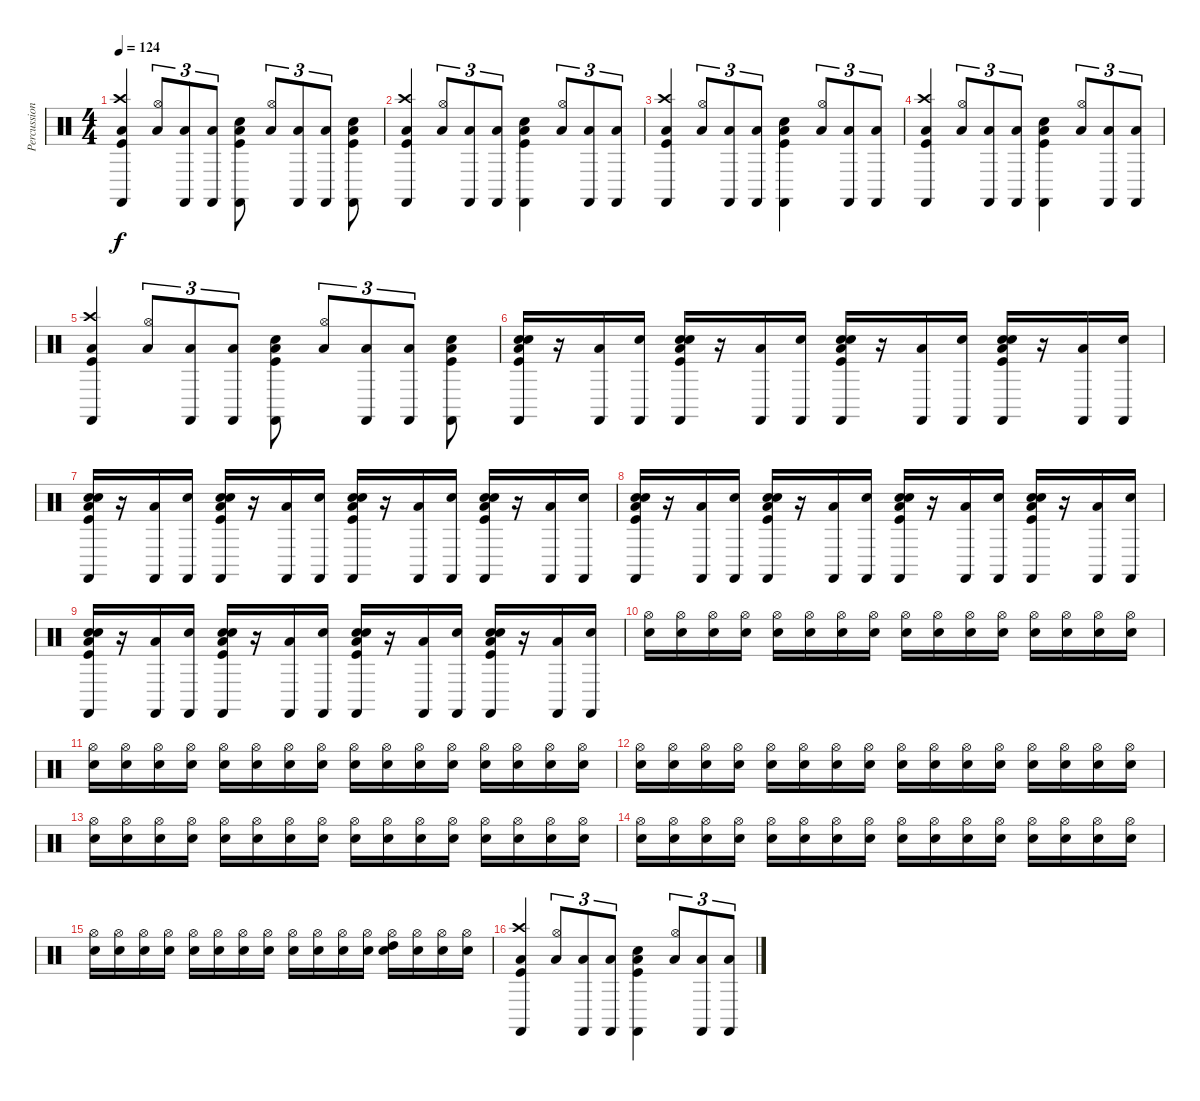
\track ("Percussion" "Percussion") {instrument percussion}
\staff {score}
\articulation defaults
\ts (4 4)
\tempo 124
\clef neutral
\ks c
("Low Floor Tom (hit)" "Kick (hit)" "Crash high (hit)" "Castanets (hit)").4{dy f} ("Low Floor Tom (hit)" "Hi-Hat (open)").8{tu (3 2)} ("Low Floor Tom (hit)" "Castanets (hit)").8{tu (3 2)} ("Low Floor Tom (hit)" "Castanets (hit)").8{tu (3 2)} ("Low Floor Tom (hit)" "Electric Snare (hit)" "Kick (hit)" "Castanets (hit)").8 ("Low Floor Tom (hit)" "Hi-Hat (open)").8{tu (3 2)} ("Low Floor Tom (hit)" "Castanets (hit)").8{tu (3 2)} ("Low Floor Tom (hit)" "Castanets (hit)").8{tu (3 2)} ("Low Floor Tom (hit)" "Electric Snare (hit)" "Kick (hit)" "Castanets (hit)").8 |
("Low Floor Tom (hit)" "Kick (hit)" "Crash high (hit)" "Castanets (hit)").4 ("Low Floor Tom (hit)" "Hi-Hat (open)").8{tu (3 2)} ("Low Floor Tom (hit)" "Castanets (hit)").8{tu (3 2)} ("Low Floor Tom (hit)" "Castanets (hit)").8{tu (3 2)} ("Low Floor Tom (hit)" "Electric Snare (hit)" "Kick (hit)" "Castanets (hit)").4 ("Low Floor Tom (hit)" "Hi-Hat (open)").8{tu (3 2)} ("Low Floor Tom (hit)" "Castanets (hit)").8{tu (3 2)} ("Low Floor Tom (hit)" "Castanets (hit)").8{tu (3 2)} |
("Low Floor Tom (hit)" "Kick (hit)" "Crash high (hit)" "Castanets (hit)").4 ("Low Floor Tom (hit)" "Hi-Hat (open)").8{tu (3 2)} ("Low Floor Tom (hit)" "Castanets (hit)").8{tu (3 2)} ("Low Floor Tom (hit)" "Castanets (hit)").8{tu (3 2)} ("Low Floor Tom (hit)" "Electric Snare (hit)" "Kick (hit)" "Castanets (hit)").4 ("Low Floor Tom (hit)" "Hi-Hat (open)").8{tu (3 2)} ("Low Floor Tom (hit)" "Castanets (hit)").8{tu (3 2)} ("Low Floor Tom (hit)" "Castanets (hit)").8{tu (3 2)} |
("Low Floor Tom (hit)" "Kick (hit)" "Crash high (hit)" "Castanets (hit)").4 ("Low Floor Tom (hit)" "Hi-Hat (open)").8{tu (3 2)} ("Low Floor Tom (hit)" "Castanets (hit)").8{tu (3 2)} ("Low Floor Tom (hit)" "Castanets (hit)").8{tu (3 2)} ("Low Floor Tom (hit)" "Electric Snare (hit)" "Kick (hit)" "Castanets (hit)").4 ("Low Floor Tom (hit)" "Hi-Hat (open)").8{tu (3 2)} ("Low Floor Tom (hit)" "Castanets (hit)").8{tu (3 2)} ("Low Floor Tom (hit)" "Castanets (hit)").8{tu (3 2)} |
("Low Floor Tom (hit)" "Kick (hit)" "Crash high (hit)" "Castanets (hit)").4 ("Low Floor Tom (hit)" "Hi-Hat (open)").8{tu (3 2)} ("Low Floor Tom (hit)" "Castanets (hit)").8{tu (3 2)} ("Low Floor Tom (hit)" "Castanets (hit)").8{tu (3 2)} ("Low Floor Tom (hit)" "Electric Snare (hit)" "Kick (hit)" "Castanets (hit)").8 ("Low Floor Tom (hit)" "Hi-Hat (open)").8{tu (3 2)} ("Low Floor Tom (hit)" "Castanets (hit)").8{tu (3 2)} ("Low Floor Tom (hit)" "Castanets (hit)").8{tu (3 2)} ("Low Floor Tom (hit)" "Electric Snare (hit)" "Kick (hit)" "Castanets (hit)").8 |
("Snare (hit)" "Low Tom (hit)" "Electric Snare (hit)" "Kick (hit)" "Castanets (hit)").16 r.16 ("Low Tom (hit)" "Castanets (hit)").16 ("Snare (hit)" "Castanets (hit)").16 ("Snare (hit)" "Low Tom (hit)" "Electric Snare (hit)" "Kick (hit)" "Castanets (hit)").16 r.16 ("Low Tom (hit)" "Castanets (hit)").16 ("Snare (hit)" "Castanets (hit)").16 ("Snare (hit)" "Low Tom (hit)" "Electric Snare (hit)" "Kick (hit)" "Castanets (hit)").16 r.16 ("Low Tom (hit)" "Castanets (hit)").16 ("Snare (hit)" "Castanets (hit)").16 ("Snare (hit)" "Low Tom (hit)" "Electric Snare (hit)" "Kick (hit)" "Castanets (hit)").16 r.16 ("Low Tom (hit)" "Castanets (hit)").16 ("Snare (hit)" "Castanets (hit)").16 |
("Snare (hit)" "Low Tom (hit)" "Electric Snare (hit)" "Kick (hit)" "Castanets (hit)").16 r.16 ("Low Tom (hit)" "Castanets (hit)").16 ("Snare (hit)" "Castanets (hit)").16 ("Snare (hit)" "Low Tom (hit)" "Electric Snare (hit)" "Kick (hit)" "Castanets (hit)").16 r.16 ("Low Tom (hit)" "Castanets (hit)").16 ("Snare (hit)" "Castanets (hit)").16 ("Snare (hit)" "Low Tom (hit)" "Electric Snare (hit)" "Kick (hit)" "Castanets (hit)").16 r.16 ("Low Tom (hit)" "Castanets (hit)").16 ("Snare (hit)" "Castanets (hit)").16 ("Snare (hit)" "Low Tom (hit)" "Electric Snare (hit)" "Kick (hit)" "Castanets (hit)").16 r.16 ("Low Tom (hit)" "Castanets (hit)").16 ("Snare (hit)" "Castanets (hit)").16 |
("Snare (hit)" "Low Tom (hit)" "Electric Snare (hit)" "Kick (hit)" "Castanets (hit)").16 r.16 ("Low Tom (hit)" "Castanets (hit)").16 ("Snare (hit)" "Castanets (hit)").16 ("Snare (hit)" "Low Tom (hit)" "Electric Snare (hit)" "Kick (hit)" "Castanets (hit)").16 r.16 ("Low Tom (hit)" "Castanets (hit)").16 ("Snare (hit)" "Castanets (hit)").16 ("Snare (hit)" "Low Tom (hit)" "Electric Snare (hit)" "Kick (hit)" "Castanets (hit)").16 r.16 ("Low Tom (hit)" "Castanets (hit)").16 ("Snare (hit)" "Castanets (hit)").16 ("Snare (hit)" "Low Tom (hit)" "Electric Snare (hit)" "Kick (hit)" "Castanets (hit)").16 r.16 ("Low Tom (hit)" "Castanets (hit)").16 ("Snare (hit)" "Castanets (hit)").16 |
("Snare (hit)" "Low Tom (hit)" "Electric Snare (hit)" "Kick (hit)" "Castanets (hit)").16 r.16 ("Low Tom (hit)" "Castanets (hit)").16 ("Snare (hit)" "Castanets (hit)").16 ("Snare (hit)" "Low Tom (hit)" "Electric Snare (hit)" "Kick (hit)" "Castanets (hit)").16 r.16 ("Low Tom (hit)" "Castanets (hit)").16 ("Snare (hit)" "Castanets (hit)").16 ("Snare (hit)" "Low Tom (hit)" "Electric Snare (hit)" "Kick (hit)" "Castanets (hit)").16 r.16 ("Low Tom (hit)" "Castanets (hit)").16 ("Snare (hit)" "Castanets (hit)").16 ("Snare (hit)" "Low Tom (hit)" "Electric Snare (hit)" "Kick (hit)" "Castanets (hit)").16 r.16 ("Low Tom (hit)" "Castanets (hit)").16 ("Snare (hit)" "Castanets (hit)").16 |
("Snare (hit)" "Hi-Hat (open)").16 ("Snare (hit)" "Hi-Hat (open)").16 ("Snare (hit)" "Hi-Hat (open)").16 ("Snare (hit)" "Hi-Hat (open)").16 ("Snare (hit)" "Hi-Hat (open)").16 ("Snare (hit)" "Hi-Hat (open)").16 ("Snare (hit)" "Hi-Hat (open)").16 ("Snare (hit)" "Hi-Hat (open)").16 ("Snare (hit)" "Hi-Hat (open)").16 ("Snare (hit)" "Hi-Hat (open)").16 ("Snare (hit)" "Hi-Hat (open)").16 ("Snare (hit)" "Hi-Hat (open)").16 ("Snare (hit)" "Hi-Hat (open)").16 ("Snare (hit)" "Hi-Hat (open)").16 ("Snare (hit)" "Hi-Hat (open)").16 ("Snare (hit)" "Hi-Hat (open)").16 |
("Snare (hit)" "Hi-Hat (open)").16 ("Snare (hit)" "Hi-Hat (open)").16 ("Snare (hit)" "Hi-Hat (open)").16 ("Snare (hit)" "Hi-Hat (open)").16 ("Snare (hit)" "Hi-Hat (open)").16 ("Snare (hit)" "Hi-Hat (open)").16 ("Snare (hit)" "Hi-Hat (open)").16 ("Snare (hit)" "Hi-Hat (open)").16 ("Snare (hit)" "Hi-Hat (open)").16 ("Snare (hit)" "Hi-Hat (open)").16 ("Snare (hit)" "Hi-Hat (open)").16 ("Snare (hit)" "Hi-Hat (open)").16 ("Snare (hit)" "Hi-Hat (open)").16 ("Snare (hit)" "Hi-Hat (open)").16 ("Snare (hit)" "Hi-Hat (open)").16 ("Snare (hit)" "Hi-Hat (open)").16 |
("Snare (hit)" "Hi-Hat (open)").16 ("Snare (hit)" "Hi-Hat (open)").16 ("Snare (hit)" "Hi-Hat (open)").16 ("Snare (hit)" "Hi-Hat (open)").16 ("Snare (hit)" "Hi-Hat (open)").16 ("Snare (hit)" "Hi-Hat (open)").16 ("Snare (hit)" "Hi-Hat (open)").16 ("Snare (hit)" "Hi-Hat (open)").16 ("Snare (hit)" "Hi-Hat (open)").16 ("Snare (hit)" "Hi-Hat (open)").16 ("Snare (hit)" "Hi-Hat (open)").16 ("Snare (hit)" "Hi-Hat (open)").16 ("Snare (hit)" "Hi-Hat (open)").16 ("Snare (hit)" "Hi-Hat (open)").16 ("Snare (hit)" "Hi-Hat (open)").16 ("Snare (hit)" "Hi-Hat (open)").16 |
("Snare (hit)" "Hi-Hat (open)").16 ("Snare (hit)" "Hi-Hat (open)").16 ("Snare (hit)" "Hi-Hat (open)").16 ("Snare (hit)" "Hi-Hat (open)").16 ("Snare (hit)" "Hi-Hat (open)").16 ("Snare (hit)" "Hi-Hat (open)").16 ("Snare (hit)" "Hi-Hat (open)").16 ("Snare (hit)" "Hi-Hat (open)").16 ("Snare (hit)" "Hi-Hat (open)").16 ("Snare (hit)" "Hi-Hat (open)").16 ("Snare (hit)" "Hi-Hat (open)").16 ("Snare (hit)" "Hi-Hat (open)").16 ("Snare (hit)" "Hi-Hat (open)").16 ("Snare (hit)" "Hi-Hat (open)").16 ("Snare (hit)" "Hi-Hat (open)").16 ("Snare (hit)" "Hi-Hat (open)").16 |
("Snare (hit)" "Hi-Hat (open)").16 ("Snare (hit)" "Hi-Hat (open)").16 ("Snare (hit)" "Hi-Hat (open)").16 ("Snare (hit)" "Hi-Hat (open)").16 ("Snare (hit)" "Hi-Hat (open)").16 ("Snare (hit)" "Hi-Hat (open)").16 ("Snare (hit)" "Hi-Hat (open)").16 ("Snare (hit)" "Hi-Hat (open)").16 ("Snare (hit)" "Hi-Hat (open)").16 ("Snare (hit)" "Hi-Hat (open)").16 ("Snare (hit)" "Hi-Hat (open)").16 ("Snare (hit)" "Hi-Hat (open)").16 ("Snare (hit)" "Hi-Hat (open)").16 ("Snare (hit)" "Hi-Hat (open)").16 ("Snare (hit)" "Hi-Hat (open)").16 ("Snare (hit)" "Hi-Hat (open)").16 |
("Snare (hit)" "Hi-Hat (open)").16 ("Snare (hit)" "Hi-Hat (open)").16 ("Snare (hit)" "Hi-Hat (open)").16 ("Snare (hit)" "Hi-Hat (open)").16 ("Snare (hit)" "Hi-Hat (open)").16 ("Snare (hit)" "Hi-Hat (open)").16 ("Snare (hit)" "Hi-Hat (open)").16 ("Snare (hit)" "Hi-Hat (open)").16 ("Snare (hit)" "Hi-Hat (open)").16 ("Snare (hit)" "Hi-Hat (open)").16 ("Snare (hit)" "Hi-Hat (open)").16 ("Snare (hit)" "Hi-Hat (open)").16 ("Snare (hit)" "High Tom (hit)" "Hi-Hat (open)").16 ("Snare (hit)" "Hi-Hat (open)").16 ("Snare (hit)" "Hi-Hat (open)").16 ("Snare (hit)" "Hi-Hat (open)").16 |
("Low Floor Tom (hit)" "Kick (hit)" "Crash high (hit)" "Castanets (hit)").4 ("Low Floor Tom (hit)" "Hi-Hat (open)").8{tu (3 2)} ("Low Floor Tom (hit)" "Castanets (hit)").8{tu (3 2)} ("Low Floor Tom (hit)" "Castanets (hit)").8{tu (3 2)} ("Low Floor Tom (hit)" "Electric Snare (hit)" "Kick (hit)" "Castanets (hit)").4 ("Low Floor Tom (hit)" "Hi-Hat (open)").8{tu (3 2)} ("Low Floor Tom (hit)" "Castanets (hit)").8{tu (3 2)} ("Low Floor Tom (hit)" "Castanets (hit)").8{tu (3 2)}
